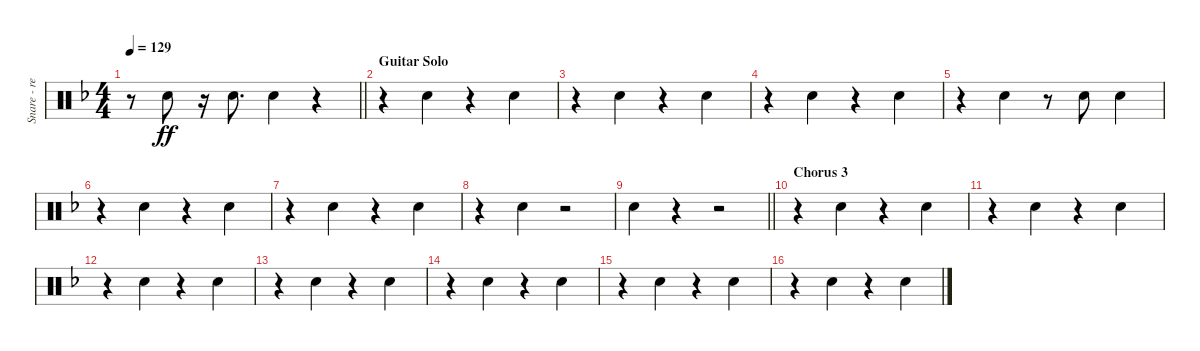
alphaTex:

\track ("Snare - reverb" "Snare - re") {instrument percussion}
\staff {score}
\articulation defaults
\ts (4 4)
\tempo 129
\clef neutral
\barLineRight lightlight
\ks dminor
r.8{dy ff} "Snare (hit) 2".8{beam Down} r.16 "Snare (hit) 2".8{d} "Snare (hit) 2".4 r.4 |
\section ("" "Guitar Solo")
r.4 "Snare (hit) 2".4 r.4 "Snare (hit) 2".4 |
r.4 "Snare (hit) 2".4 r.4 "Snare (hit) 2".4 |
r.4 "Snare (hit) 2".4 r.4 "Snare (hit) 2".4 |
r.4 "Snare (hit) 2".4 r.8 "Snare (hit) 2".8{beam Down} "Snare (hit) 2".4 |
r.4 "Snare (hit) 2".4 r.4 "Snare (hit) 2".4 |
r.4 "Snare (hit) 2".4 r.4 "Snare (hit) 2".4 |
r.4 "Snare (hit) 2".4 r.2 |
\barLineRight lightlight "Snare (hit) 2".4
r.4 r.2 |
\section ("" "Chorus 3")
r.4 "Snare (hit) 2".4 r.4 "Snare (hit) 2".4 |
r.4 "Snare (hit) 2".4 r.4 "Snare (hit) 2".4 |
r.4 "Snare (hit) 2".4 r.4 "Snare (hit) 2".4 |
r.4 "Snare (hit) 2".4 r.4 "Snare (hit) 2".4 |
r.4 "Snare (hit) 2".4 r.4 "Snare (hit) 2".4 |
r.4 "Snare (hit) 2".4 r.4 "Snare (hit) 2".4 |
r.4 "Snare (hit) 2".4 r.4 "Snare (hit) 2".4
